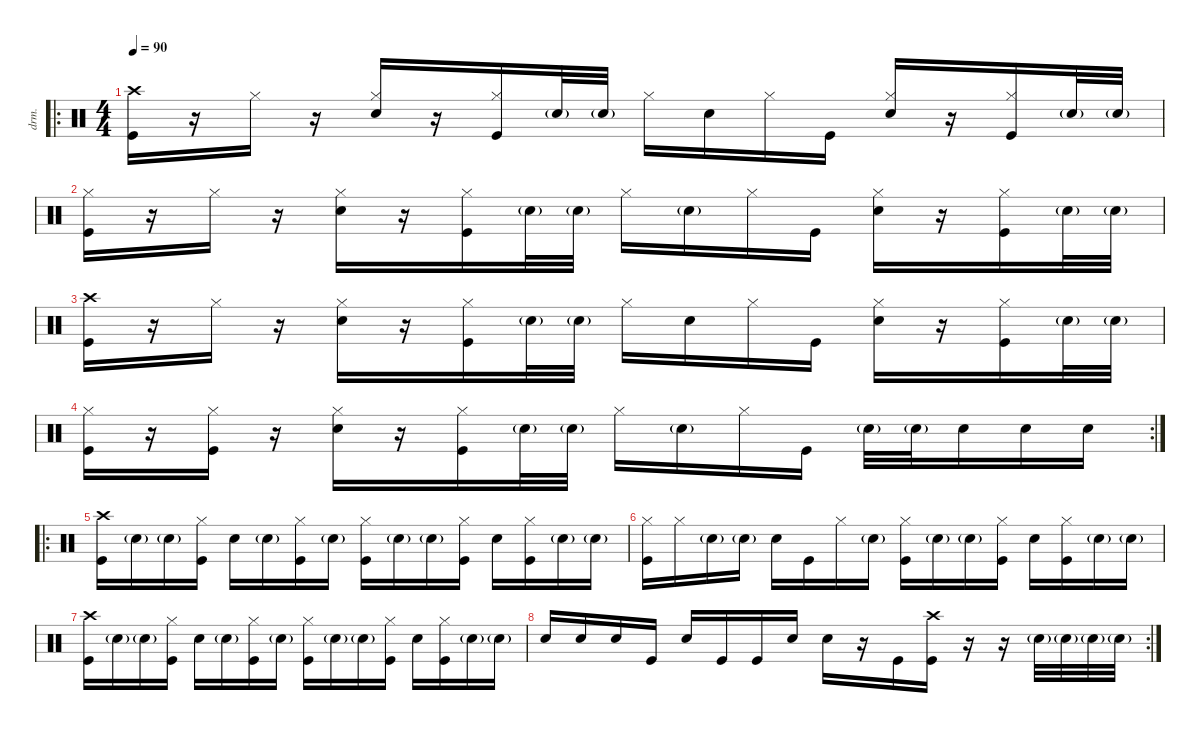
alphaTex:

\defaultSystemsLayout 4
\hideDynamics
\bracketExtendMode nobrackets
\track ("Drumkit" "drm.") {instrument percussion}
\staff {score}
\articulation defaults
\ro
\ts (4 4)
\tempo 90
\clef neutral
\ks c
("Kick (hit)" "Crash high (hit)").16{dy mf beam Down} r.16{beam Down} "Hi-Hat (closed)".16{beam Down} r.16{beam Down} ("Snare (hit) 2" "Hi-Hat (closed)").16{beam Up} r.16{beam Up} ("Kick (hit)" "Hi-Hat (closed)").16{beam Up} "Snare (hit) 2"{g}.32{beam Up} "Snare (hit) 2"{g}.32{beam Up} "Hi-Hat (closed)".16{beam Down} "Snare (hit) 2".16{beam Down} "Hi-Hat (closed)".16{beam Down} "Kick (hit)".16{beam Down} ("Snare (hit) 2" "Hi-Hat (closed)").16{beam Up} r.16{beam Up} ("Kick (hit)" "Hi-Hat (closed)").16{beam Up} "Snare (hit) 2"{g}.32{beam Up} "Snare (hit) 2"{g}.32{beam Up} |
("Kick (hit)" "Hi-Hat (closed)").16{beam Down} r.16{beam Down} "Hi-Hat (closed)".16{beam Down} r.16{beam Down} ("Snare (hit) 2" "Hi-Hat (closed)").16{beam Down} r.16{beam Down} ("Kick (hit)" "Hi-Hat (closed)").16{beam Down} "Snare (hit) 2"{g}.32{beam Down} "Snare (hit) 2"{g}.32{beam Down} "Hi-Hat (closed)".16{beam Down} "Snare (hit) 2"{g}.16{beam Down} "Hi-Hat (closed)".16{beam Down} "Kick (hit)".16{beam Down} ("Snare (hit) 2" "Hi-Hat (closed)").16{beam Down} r.16{beam Down} ("Kick (hit)" "Hi-Hat (closed)").16{beam Down} "Snare (hit) 2"{g}.32{beam Down} "Snare (hit) 2"{g}.32{beam Down} |
("Kick (hit)" "Crash high (hit)").16{beam Down} r.16{beam Down} "Hi-Hat (closed)".16{beam Down} r.16{beam Down} ("Snare (hit) 2" "Hi-Hat (closed)").16{beam Down} r.16{beam Down} ("Kick (hit)" "Hi-Hat (closed)").16{beam Down} "Snare (hit) 2"{g}.32{beam Down} "Snare (hit) 2"{g}.32{beam Down} "Hi-Hat (closed)".16{beam Down} "Snare (hit) 2".16{beam Down} "Hi-Hat (closed)".16{beam Down} "Kick (hit)".16{beam Down} ("Snare (hit) 2" "Hi-Hat (closed)").16{beam Down} r.16{beam Down} ("Kick (hit)" "Hi-Hat (closed)").16{beam Down} "Snare (hit) 2"{g}.32{beam Down} "Snare (hit) 2"{g}.32{beam Down} |
\rc 2
("Kick (hit)" "Hi-Hat (closed)").16{beam Down} r.16{beam Down} ("Hi-Hat (closed)" "Kick (hit)").16{beam Down} r.16{beam Down} ("Snare (hit) 2" "Hi-Hat (closed)").16{beam Down} r.16{beam Down} ("Kick (hit)" "Hi-Hat (closed)").16{beam Down} "Snare (hit) 2"{g}.32{beam Down} "Snare (hit) 2"{g}.32{beam Down} "Hi-Hat (closed)".16{beam Down} "Snare (hit) 2"{g}.16{beam Down} "Hi-Hat (closed)".16{beam Down} "Kick (hit)".16{beam Down} "Snare (hit) 2"{g}.32{beam Down} "Snare (hit) 2"{g}.32{beam Down} "Snare (hit) 2".16{beam Down} "Snare (hit) 2".16{beam Down} "Snare (hit) 2".16{beam Down} |
\ro
("Kick (hit)" "Crash high (hit)").16{beam Down} "Snare (hit) 2"{g}.16{beam Down} "Snare (hit) 2"{g}.16{beam Down} ("Kick (hit)" "Hi-Hat (closed)").16{beam Down} "Snare (hit) 2".16{beam Down} "Snare (hit) 2"{g}.16{beam Down} ("Kick (hit)" "Hi-Hat (closed)").16{beam Down} "Snare (hit) 2"{g}.16{beam Down} ("Kick (hit)" "Hi-Hat (closed)").16{beam Down} "Snare (hit) 2"{g}.16{beam Down} "Snare (hit) 2"{g}.16{beam Down} ("Kick (hit)" "Hi-Hat (closed)").16{beam Down} "Snare (hit) 2".16{beam Down} ("Kick (hit)" "Hi-Hat (closed)").16{beam Down} "Snare (hit) 2"{g}.16{beam Down} "Snare (hit) 2"{g}.16{beam Down} |
("Kick (hit)" "Hi-Hat (closed)").16{beam Down} "Hi-Hat (closed)".16{beam Down} "Snare (hit) 2"{g}.16{beam Down} "Snare (hit) 2"{g}.16{beam Down} "Snare (hit) 2".16{beam Down} "Kick (hit)".16{beam Down} "Hi-Hat (closed)".16{beam Down} "Snare (hit) 2"{g}.16{beam Down} ("Kick (hit)" "Hi-Hat (closed)").16{beam Down} "Snare (hit) 2"{g}.16{beam Down} "Snare (hit) 2"{g}.16{beam Down} ("Kick (hit)" "Hi-Hat (closed)").16{beam Down} "Snare (hit) 2".16{beam Down} ("Kick (hit)" "Hi-Hat (closed)").16{beam Down} "Snare (hit) 2"{g}.16{beam Down} "Snare (hit) 2"{g}.16{beam Down} |
("Kick (hit)" "Crash high (hit)").16{beam Down} "Snare (hit) 2"{g}.16{beam Down} "Snare (hit) 2"{g}.16{beam Down} ("Kick (hit)" "Hi-Hat (closed)").16{beam Down} "Snare (hit) 2".16{beam Down} "Snare (hit) 2"{g}.16{beam Down} ("Kick (hit)" "Hi-Hat (closed)").16{beam Down} "Snare (hit) 2"{g}.16{beam Down} ("Kick (hit)" "Hi-Hat (closed)").16{beam Down} "Snare (hit) 2"{g}.16{beam Down} "Snare (hit) 2"{g}.16{beam Down} ("Kick (hit)" "Hi-Hat (closed)").16{beam Down} "Snare (hit) 2".16{beam Down} ("Kick (hit)" "Hi-Hat (closed)").16{beam Down} "Snare (hit) 2"{g}.16{beam Down} "Snare (hit) 2"{g}.16{beam Down} |
\rc 2 "Snare (hit) 2".16{beam Up} "Snare (hit) 2".16{beam Up} "Snare (hit) 2".16{beam Up} "Kick (hit)".16{beam Up} "Snare (hit) 2".16{beam Up} "Kick (hit)".16{beam Up} "Kick (hit)".16{beam Up} "Snare (hit) 2".16{beam Up} "Snare (hit) 2".16{beam Down}
r.16{beam Down} "Kick (hit)".16{beam Down} ("Crash high (hit)" "Kick (hit)").16{beam Down} r.16{beam Down} r.16{beam Down} "Snare (hit) 2"{g}.32{beam Down} "Snare (hit) 2"{g}.32{beam Down} "Snare (hit) 2"{g}.32{beam Down} "Snare (hit) 2"{g}.32{beam Down}
